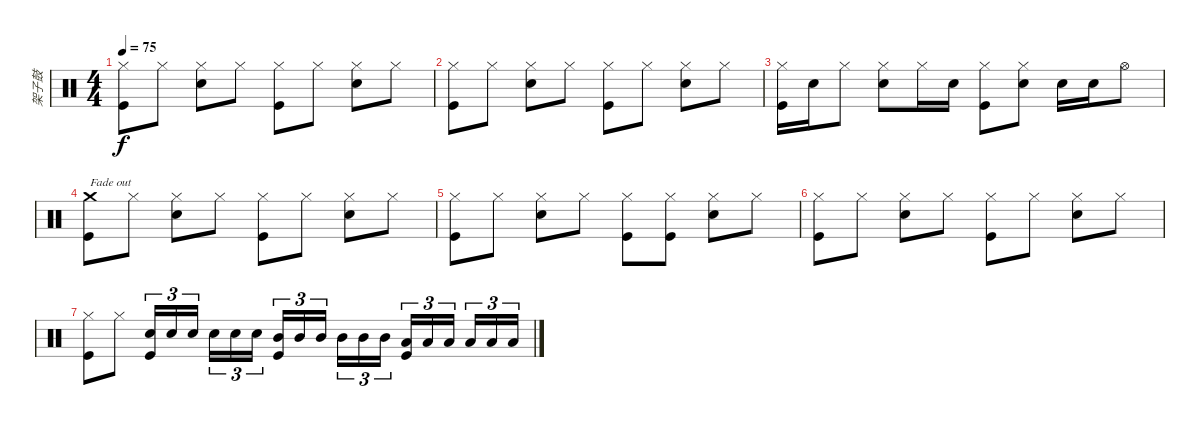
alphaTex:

\track ("架子鼓" "架子鼓") {instrument percussion}
\staff {score}
\articulation defaults
\ts (4 4)
\tempo 75
\clef neutral
\ks c
("Hi-Hat (closed)" "Kick (hit)").8{dy f} "Hi-Hat (closed)".8 ("Hi-Hat (closed)" "Snare (hit) 2").8 "Hi-Hat (closed)".8 ("Hi-Hat (closed)" "Kick (hit)").8 "Hi-Hat (closed)".8 ("Hi-Hat (closed)" "Snare (hit) 2").8 "Hi-Hat (closed)".8 |
("Hi-Hat (closed)" "Kick (hit)").8 "Hi-Hat (closed)".8 ("Hi-Hat (closed)" "Snare (hit) 2").8 "Hi-Hat (closed)".8 ("Hi-Hat (closed)" "Kick (hit)").8 "Hi-Hat (closed)".8 ("Hi-Hat (closed)" "Snare (hit) 2").8 "Hi-Hat (closed)".8 |
("Hi-Hat (closed)" "Kick (hit)").16 "Snare (hit) 2".16 "Hi-Hat (closed)".8 ("Hi-Hat (closed)" "Snare (hit) 2").8 "Hi-Hat (closed)".16 "Snare (hit) 2".16 ("Hi-Hat (closed)" "Kick (hit)").8 ("Hi-Hat (closed)" "Snare (hit) 2").8 "Snare (hit) 2".16 "Snare (hit) 2".16 "Hi-Hat (open)".8 |
("Crash medium (hit)" "Kick (hit)").8{txt "Fade out" volume 8} "Hi-Hat (closed)".8 ("Hi-Hat (closed)" "Snare (hit) 2").8 "Hi-Hat (closed)".8 ("Hi-Hat (closed)" "Kick (hit)").8 "Hi-Hat (closed)".8 ("Hi-Hat (closed)" "Snare (hit) 2").8 "Hi-Hat (closed)".8 |
("Hi-Hat (closed)" "Kick (hit)").8 "Hi-Hat (closed)".8 ("Hi-Hat (closed)" "Snare (hit) 2").8 "Hi-Hat (closed)".8 ("Hi-Hat (closed)" "Kick (hit)").8 ("Hi-Hat (closed)" "Kick (hit)").8 ("Hi-Hat (closed)" "Snare (hit) 2").8 "Hi-Hat (closed)".8 |
("Hi-Hat (closed)" "Kick (hit)").8{volume 0} "Hi-Hat (closed)".8 ("Hi-Hat (closed)" "Snare (hit) 2").8 "Hi-Hat (closed)".8 ("Hi-Hat (closed)" "Kick (hit)").8 "Hi-Hat (closed)".8 ("Hi-Hat (closed)" "Snare (hit) 2").8 "Hi-Hat (closed)".8 |
("Hi-Hat (closed)" "Kick (hit)").8 "Hi-Hat (closed)".8 ("Snare (hit) 2" "Kick (hit)").16{tu (3 2)} "Snare (hit) 2".16{tu (3 2)} "Snare (hit) 2".16{tu (3 2)} "Snare (hit) 2".16{tu (3 2)} "Snare (hit) 2".16{tu (3 2)} "Snare (hit) 2".16{tu (3 2)} ("Mid Tom (hit)" "Kick (hit)").16{tu (3 2)} "Mid Tom (hit)".16{tu (3 2)} "Mid Tom (hit)".16{tu (3 2)} "Mid Tom (hit)".16{tu (3 2)} "Mid Tom (hit)".16{tu (3 2)} "Mid Tom (hit)".16{tu (3 2)} ("Low Tom (hit)" "Kick (hit)").16{tu (3 2)} "Low Tom (hit)".16{tu (3 2)} "Low Tom (hit)".16{tu (3 2)} "Low Tom (hit)".16{tu (3 2)} "Low Tom (hit)".16{tu (3 2)} "Low Tom (hit)".16{tu (3 2)}
